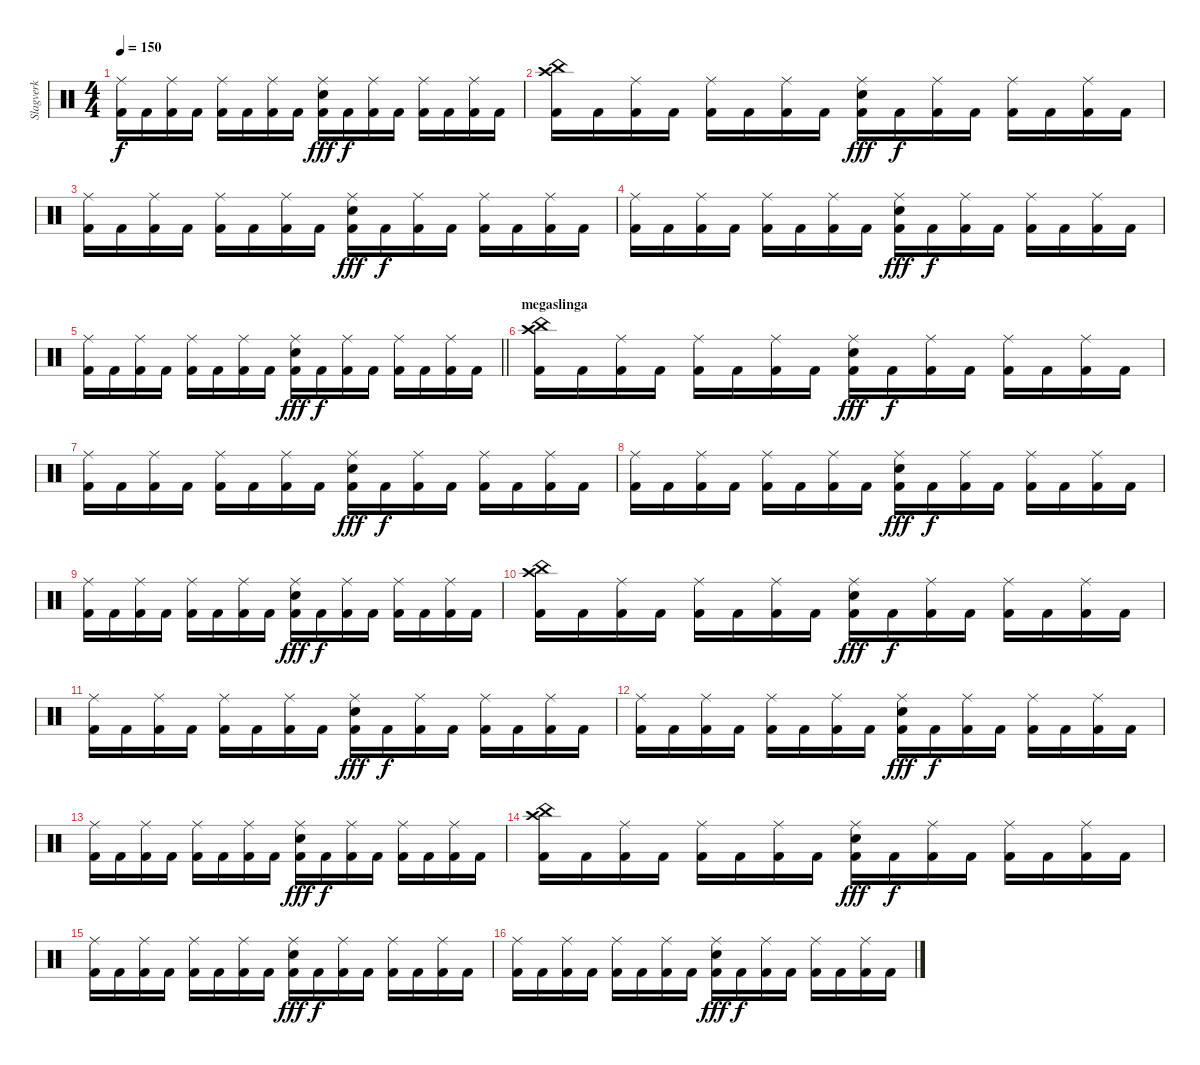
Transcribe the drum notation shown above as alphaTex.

\track ("Slagverk" "Slagverk") {instrument percussion}
\staff {score}
\articulation defaults
\ts (4 4)
\tempo 150
\clef neutral
\ks c
("Ride (middle)" "Kick (hit) 2").16{dy f} "Kick (hit) 2".16 ("Ride (middle)" "Kick (hit) 2").16 "Kick (hit) 2".16 ("Ride (middle)" "Kick (hit) 2").16 "Kick (hit) 2".16 ("Ride (middle)" "Kick (hit) 2").16 "Kick (hit) 2".16 ("Ride (middle)" "Electric Snare (hit)" "Kick (hit) 2").16{dy fff} "Kick (hit) 2".16{dy f} ("Ride (middle)" "Kick (hit) 2").16 "Kick (hit) 2".16 ("Ride (middle)" "Kick (hit) 2").16 "Kick (hit) 2".16 ("Ride (middle)" "Kick (hit) 2").16 "Kick (hit) 2".16 |
("China (hit)" "Crash high (hit)" "Kick (hit) 2").16 "Kick (hit) 2".16 ("Ride (middle)" "Kick (hit) 2").16 "Kick (hit) 2".16 ("Ride (middle)" "Kick (hit) 2").16 "Kick (hit) 2".16 ("Ride (middle)" "Kick (hit) 2").16 "Kick (hit) 2".16 ("Ride (middle)" "Electric Snare (hit)" "Kick (hit) 2").16{dy fff} "Kick (hit) 2".16{dy f} ("Ride (middle)" "Kick (hit) 2").16 "Kick (hit) 2".16 ("Ride (middle)" "Kick (hit) 2").16 "Kick (hit) 2".16 ("Ride (middle)" "Kick (hit) 2").16 "Kick (hit) 2".16 |
("Ride (middle)" "Kick (hit) 2").16 "Kick (hit) 2".16 ("Ride (middle)" "Kick (hit) 2").16 "Kick (hit) 2".16 ("Ride (middle)" "Kick (hit) 2").16 "Kick (hit) 2".16 ("Ride (middle)" "Kick (hit) 2").16 "Kick (hit) 2".16 ("Ride (middle)" "Electric Snare (hit)" "Kick (hit) 2").16{dy fff} "Kick (hit) 2".16{dy f} ("Ride (middle)" "Kick (hit) 2").16 "Kick (hit) 2".16 ("Ride (middle)" "Kick (hit) 2").16 "Kick (hit) 2".16 ("Ride (middle)" "Kick (hit) 2").16 "Kick (hit) 2".16 |
("Ride (middle)" "Kick (hit) 2").16 "Kick (hit) 2".16 ("Ride (middle)" "Kick (hit) 2").16 "Kick (hit) 2".16 ("Ride (middle)" "Kick (hit) 2").16 "Kick (hit) 2".16 ("Ride (middle)" "Kick (hit) 2").16 "Kick (hit) 2".16 ("Ride (middle)" "Electric Snare (hit)" "Kick (hit) 2").16{dy fff} "Kick (hit) 2".16{dy f} ("Ride (middle)" "Kick (hit) 2").16 "Kick (hit) 2".16 ("Ride (middle)" "Kick (hit) 2").16 "Kick (hit) 2".16 ("Ride (middle)" "Kick (hit) 2").16 "Kick (hit) 2".16 |
\barLineRight lightlight
("Ride (middle)" "Kick (hit) 2").16 "Kick (hit) 2".16 ("Ride (middle)" "Kick (hit) 2").16 "Kick (hit) 2".16 ("Ride (middle)" "Kick (hit) 2").16 "Kick (hit) 2".16 ("Ride (middle)" "Kick (hit) 2").16 "Kick (hit) 2".16 ("Ride (middle)" "Electric Snare (hit)" "Kick (hit) 2").16{dy fff} "Kick (hit) 2".16{dy f} ("Ride (middle)" "Kick (hit) 2").16 "Kick (hit) 2".16 ("Ride (middle)" "Kick (hit) 2").16 "Kick (hit) 2".16 ("Ride (middle)" "Kick (hit) 2").16 "Kick (hit) 2".16 |
\section ("" "megaslinga")
("China (hit)" "Crash high (hit)" "Kick (hit) 2").16 "Kick (hit) 2".16 ("Ride (middle)" "Kick (hit) 2").16 "Kick (hit) 2".16 ("Ride (middle)" "Kick (hit) 2").16 "Kick (hit) 2".16 ("Ride (middle)" "Kick (hit) 2").16 "Kick (hit) 2".16 ("Ride (middle)" "Electric Snare (hit)" "Kick (hit) 2").16{dy fff} "Kick (hit) 2".16{dy f} ("Ride (middle)" "Kick (hit) 2").16 "Kick (hit) 2".16 ("Ride (middle)" "Kick (hit) 2").16 "Kick (hit) 2".16 ("Ride (middle)" "Kick (hit) 2").16 "Kick (hit) 2".16 |
("Ride (middle)" "Kick (hit) 2").16 "Kick (hit) 2".16 ("Ride (middle)" "Kick (hit) 2").16 "Kick (hit) 2".16 ("Ride (middle)" "Kick (hit) 2").16 "Kick (hit) 2".16 ("Ride (middle)" "Kick (hit) 2").16 "Kick (hit) 2".16 ("Ride (middle)" "Electric Snare (hit)" "Kick (hit) 2").16{dy fff} "Kick (hit) 2".16{dy f} ("Ride (middle)" "Kick (hit) 2").16 "Kick (hit) 2".16 ("Ride (middle)" "Kick (hit) 2").16 "Kick (hit) 2".16 ("Ride (middle)" "Kick (hit) 2").16 "Kick (hit) 2".16 |
("Ride (middle)" "Kick (hit) 2").16 "Kick (hit) 2".16 ("Ride (middle)" "Kick (hit) 2").16 "Kick (hit) 2".16 ("Ride (middle)" "Kick (hit) 2").16 "Kick (hit) 2".16 ("Ride (middle)" "Kick (hit) 2").16 "Kick (hit) 2".16 ("Ride (middle)" "Electric Snare (hit)" "Kick (hit) 2").16{dy fff} "Kick (hit) 2".16{dy f} ("Ride (middle)" "Kick (hit) 2").16 "Kick (hit) 2".16 ("Ride (middle)" "Kick (hit) 2").16 "Kick (hit) 2".16 ("Ride (middle)" "Kick (hit) 2").16 "Kick (hit) 2".16 |
("Ride (middle)" "Kick (hit) 2").16 "Kick (hit) 2".16 ("Ride (middle)" "Kick (hit) 2").16 "Kick (hit) 2".16 ("Ride (middle)" "Kick (hit) 2").16 "Kick (hit) 2".16 ("Ride (middle)" "Kick (hit) 2").16 "Kick (hit) 2".16 ("Ride (middle)" "Electric Snare (hit)" "Kick (hit) 2").16{dy fff} "Kick (hit) 2".16{dy f} ("Ride (middle)" "Kick (hit) 2").16 "Kick (hit) 2".16 ("Ride (middle)" "Kick (hit) 2").16 "Kick (hit) 2".16 ("Ride (middle)" "Kick (hit) 2").16 "Kick (hit) 2".16 |
("China (hit)" "Crash high (hit)" "Kick (hit) 2").16 "Kick (hit) 2".16 ("Ride (middle)" "Kick (hit) 2").16 "Kick (hit) 2".16 ("Ride (middle)" "Kick (hit) 2").16 "Kick (hit) 2".16 ("Ride (middle)" "Kick (hit) 2").16 "Kick (hit) 2".16 ("Ride (middle)" "Electric Snare (hit)" "Kick (hit) 2").16{dy fff} "Kick (hit) 2".16{dy f} ("Ride (middle)" "Kick (hit) 2").16 "Kick (hit) 2".16 ("Ride (middle)" "Kick (hit) 2").16 "Kick (hit) 2".16 ("Ride (middle)" "Kick (hit) 2").16 "Kick (hit) 2".16 |
("Ride (middle)" "Kick (hit) 2").16 "Kick (hit) 2".16 ("Ride (middle)" "Kick (hit) 2").16 "Kick (hit) 2".16 ("Ride (middle)" "Kick (hit) 2").16 "Kick (hit) 2".16 ("Ride (middle)" "Kick (hit) 2").16 "Kick (hit) 2".16 ("Ride (middle)" "Electric Snare (hit)" "Kick (hit) 2").16{dy fff} "Kick (hit) 2".16{dy f} ("Ride (middle)" "Kick (hit) 2").16 "Kick (hit) 2".16 ("Ride (middle)" "Kick (hit) 2").16 "Kick (hit) 2".16 ("Ride (middle)" "Kick (hit) 2").16 "Kick (hit) 2".16 |
("Ride (middle)" "Kick (hit) 2").16 "Kick (hit) 2".16 ("Ride (middle)" "Kick (hit) 2").16 "Kick (hit) 2".16 ("Ride (middle)" "Kick (hit) 2").16 "Kick (hit) 2".16 ("Ride (middle)" "Kick (hit) 2").16 "Kick (hit) 2".16 ("Ride (middle)" "Electric Snare (hit)" "Kick (hit) 2").16{dy fff} "Kick (hit) 2".16{dy f} ("Ride (middle)" "Kick (hit) 2").16 "Kick (hit) 2".16 ("Ride (middle)" "Kick (hit) 2").16 "Kick (hit) 2".16 ("Ride (middle)" "Kick (hit) 2").16 "Kick (hit) 2".16 |
("Ride (middle)" "Kick (hit) 2").16 "Kick (hit) 2".16 ("Ride (middle)" "Kick (hit) 2").16 "Kick (hit) 2".16 ("Ride (middle)" "Kick (hit) 2").16 "Kick (hit) 2".16 ("Ride (middle)" "Kick (hit) 2").16 "Kick (hit) 2".16 ("Ride (middle)" "Electric Snare (hit)" "Kick (hit) 2").16{dy fff} "Kick (hit) 2".16{dy f} ("Ride (middle)" "Kick (hit) 2").16 "Kick (hit) 2".16 ("Ride (middle)" "Kick (hit) 2").16 "Kick (hit) 2".16 ("Ride (middle)" "Kick (hit) 2").16 "Kick (hit) 2".16 |
("China (hit)" "Crash high (hit)" "Kick (hit) 2").16 "Kick (hit) 2".16 ("Ride (middle)" "Kick (hit) 2").16 "Kick (hit) 2".16 ("Ride (middle)" "Kick (hit) 2").16 "Kick (hit) 2".16 ("Ride (middle)" "Kick (hit) 2").16 "Kick (hit) 2".16 ("Ride (middle)" "Electric Snare (hit)" "Kick (hit) 2").16{dy fff} "Kick (hit) 2".16{dy f} ("Ride (middle)" "Kick (hit) 2").16 "Kick (hit) 2".16 ("Ride (middle)" "Kick (hit) 2").16 "Kick (hit) 2".16 ("Ride (middle)" "Kick (hit) 2").16 "Kick (hit) 2".16 |
("Ride (middle)" "Kick (hit) 2").16 "Kick (hit) 2".16 ("Ride (middle)" "Kick (hit) 2").16 "Kick (hit) 2".16 ("Ride (middle)" "Kick (hit) 2").16 "Kick (hit) 2".16 ("Ride (middle)" "Kick (hit) 2").16 "Kick (hit) 2".16 ("Ride (middle)" "Electric Snare (hit)" "Kick (hit) 2").16{dy fff} "Kick (hit) 2".16{dy f} ("Ride (middle)" "Kick (hit) 2").16 "Kick (hit) 2".16 ("Ride (middle)" "Kick (hit) 2").16 "Kick (hit) 2".16 ("Ride (middle)" "Kick (hit) 2").16 "Kick (hit) 2".16 |
("Ride (middle)" "Kick (hit) 2").16 "Kick (hit) 2".16 ("Ride (middle)" "Kick (hit) 2").16 "Kick (hit) 2".16 ("Ride (middle)" "Kick (hit) 2").16 "Kick (hit) 2".16 ("Ride (middle)" "Kick (hit) 2").16 "Kick (hit) 2".16 ("Ride (middle)" "Electric Snare (hit)" "Kick (hit) 2").16{dy fff} "Kick (hit) 2".16{dy f} ("Ride (middle)" "Kick (hit) 2").16 "Kick (hit) 2".16 ("Ride (middle)" "Kick (hit) 2").16 "Kick (hit) 2".16 ("Ride (middle)" "Kick (hit) 2").16 "Kick (hit) 2".16
